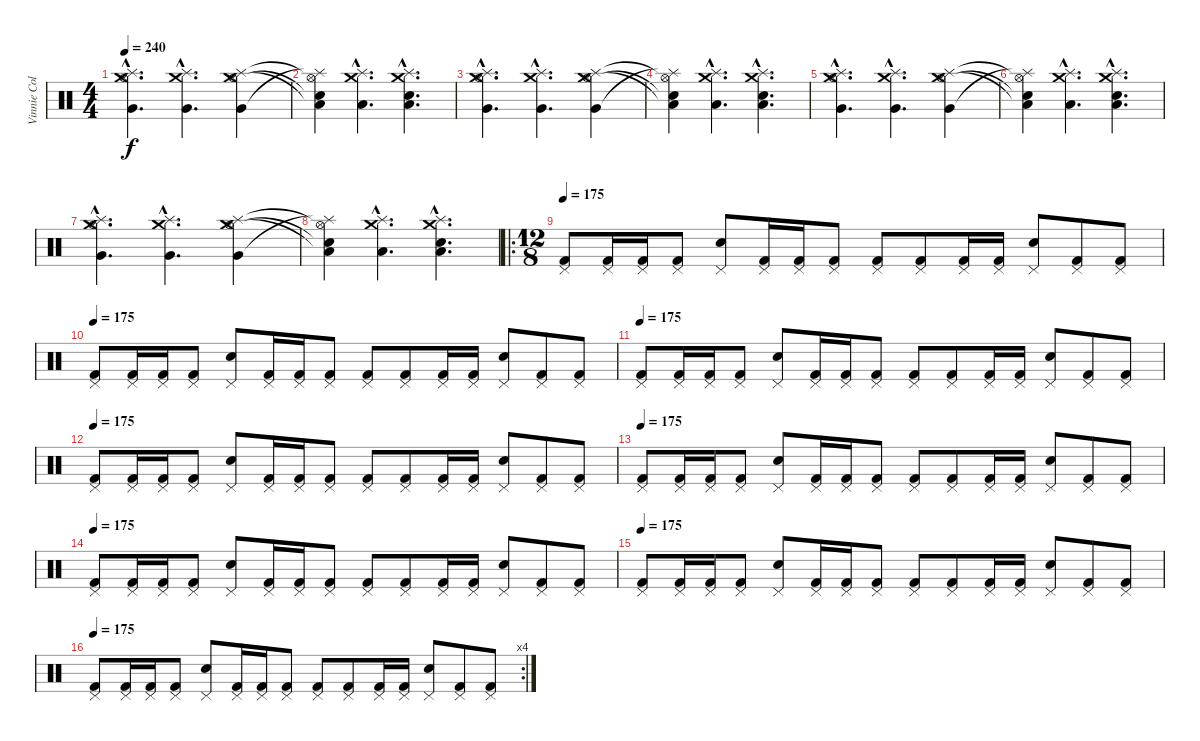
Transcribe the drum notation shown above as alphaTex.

\track ("Vinnie Colaiuta" "Vinnie Col") {instrument percussion}
\staff {score}
\articulation defaults
\ts (4 4)
\tempo 240
\clef neutral
\ks c
("Crash medium (hit)"{hac} "Hi-Hat (open)"{hac} "Very Low Tom (hit)"{hac} "Splash (hit)"{hac}).4{d dy f} ("Crash medium (hit)"{hac} "Very Low Tom (hit)"{hac} "Splash (hit)"{hac}).4{d} ("Crash medium (hit)" "Hi-Hat (open)" "Very Low Tom (hit)" "Splash (hit)").4 |
("Low Floor Tom (hit)"{t} "Snare (hit) 2"{t} "Splash (hit)"{t} "Hi-Hat (open)"{t}).4 ("Crash medium (hit)"{hac} "Low Floor Tom (hit)"{hac} "Splash (hit)"{hac}).4{d} ("Crash medium (hit)"{hac} "Low Floor Tom (hit)"{hac} "Snare (hit) 2"{hac} "Splash (hit)"{hac}).4{d} |
("Crash medium (hit)"{hac} "Hi-Hat (open)"{hac} "Very Low Tom (hit)"{hac} "Splash (hit)"{hac}).4{d} ("Crash medium (hit)"{hac} "Very Low Tom (hit)"{hac} "Splash (hit)"{hac}).4{d} ("Crash medium (hit)" "Hi-Hat (open)" "Very Low Tom (hit)" "Splash (hit)").4 |
("Low Floor Tom (hit)"{t} "Snare (hit) 2"{t} "Splash (hit)"{t} "Hi-Hat (open)"{t}).4 ("Crash medium (hit)"{hac} "Low Floor Tom (hit)"{hac} "Splash (hit)"{hac}).4{d} ("Crash medium (hit)"{hac} "Low Floor Tom (hit)"{hac} "Snare (hit) 2"{hac} "Splash (hit)"{hac}).4{d} |
("Crash medium (hit)"{hac} "Hi-Hat (open)"{hac} "Very Low Tom (hit)"{hac} "Splash (hit)"{hac}).4{d} ("Crash medium (hit)"{hac} "Very Low Tom (hit)"{hac} "Splash (hit)"{hac}).4{d} ("Crash medium (hit)" "Hi-Hat (open)" "Very Low Tom (hit)" "Splash (hit)").4 |
("Low Floor Tom (hit)"{t} "Snare (hit) 2"{t} "Splash (hit)"{t} "Hi-Hat (open)"{t}).4 ("Crash medium (hit)"{hac} "Low Floor Tom (hit)"{hac} "Splash (hit)"{hac}).4{d} ("Crash medium (hit)"{hac} "Low Floor Tom (hit)"{hac} "Snare (hit) 2"{hac} "Splash (hit)"{hac}).4{d} |
("Crash medium (hit)"{hac} "Hi-Hat (open)"{hac} "Very Low Tom (hit)"{hac} "Splash (hit)"{hac}).4{d} ("Crash medium (hit)"{hac} "Very Low Tom (hit)"{hac} "Splash (hit)"{hac}).4{d} ("Crash medium (hit)" "Hi-Hat (open)" "Very Low Tom (hit)" "Splash (hit)").4 |
("Low Floor Tom (hit)"{t} "Snare (hit) 2"{t} "Splash (hit)"{t} "Hi-Hat (open)"{t}).4 ("Crash medium (hit)"{hac} "Low Floor Tom (hit)"{hac} "Splash (hit)"{hac}).4{d} ("Crash medium (hit)"{hac} "Low Floor Tom (hit)"{hac} "Snare (hit) 2"{hac} "Splash (hit)"{hac}).4{d} |
\ro
\ts (12 8)
\tempo 175
("Kick (hit) 2" "Pedal Hi-Hat (hit)").8 ("Kick (hit) 2" "Pedal Hi-Hat (hit)").16 ("Kick (hit) 2" "Pedal Hi-Hat (hit)").16 ("Kick (hit) 2" "Pedal Hi-Hat (hit)").8 ("Snare (hit) 2" "Pedal Hi-Hat (hit)").8 ("Kick (hit) 2" "Pedal Hi-Hat (hit)").16 ("Kick (hit) 2" "Pedal Hi-Hat (hit)").16 ("Kick (hit) 2" "Pedal Hi-Hat (hit)").8 ("Kick (hit) 2" "Pedal Hi-Hat (hit)").8 ("Kick (hit) 2" "Pedal Hi-Hat (hit)").8 ("Kick (hit) 2" "Pedal Hi-Hat (hit)").16 ("Kick (hit) 2" "Pedal Hi-Hat (hit)").16 ("Snare (hit) 2" "Pedal Hi-Hat (hit)").8 ("Kick (hit) 2" "Pedal Hi-Hat (hit)").8 ("Kick (hit) 2" "Pedal Hi-Hat (hit)").8 |
\tempo 175
("Kick (hit) 2" "Pedal Hi-Hat (hit)").8 ("Kick (hit) 2" "Pedal Hi-Hat (hit)").16 ("Kick (hit) 2" "Pedal Hi-Hat (hit)").16 ("Kick (hit) 2" "Pedal Hi-Hat (hit)").8 ("Snare (hit) 2" "Pedal Hi-Hat (hit)").8 ("Kick (hit) 2" "Pedal Hi-Hat (hit)").16 ("Kick (hit) 2" "Pedal Hi-Hat (hit)").16 ("Kick (hit) 2" "Pedal Hi-Hat (hit)").8 ("Kick (hit) 2" "Pedal Hi-Hat (hit)").8 ("Kick (hit) 2" "Pedal Hi-Hat (hit)").8 ("Kick (hit) 2" "Pedal Hi-Hat (hit)").16 ("Kick (hit) 2" "Pedal Hi-Hat (hit)").16 ("Snare (hit) 2" "Pedal Hi-Hat (hit)").8 ("Kick (hit) 2" "Pedal Hi-Hat (hit)").8 ("Kick (hit) 2" "Pedal Hi-Hat (hit)").8 |
\tempo 175
("Kick (hit) 2" "Pedal Hi-Hat (hit)").8 ("Kick (hit) 2" "Pedal Hi-Hat (hit)").16 ("Kick (hit) 2" "Pedal Hi-Hat (hit)").16 ("Kick (hit) 2" "Pedal Hi-Hat (hit)").8 ("Snare (hit) 2" "Pedal Hi-Hat (hit)").8 ("Kick (hit) 2" "Pedal Hi-Hat (hit)").16 ("Kick (hit) 2" "Pedal Hi-Hat (hit)").16 ("Kick (hit) 2" "Pedal Hi-Hat (hit)").8 ("Kick (hit) 2" "Pedal Hi-Hat (hit)").8 ("Kick (hit) 2" "Pedal Hi-Hat (hit)").8 ("Kick (hit) 2" "Pedal Hi-Hat (hit)").16 ("Kick (hit) 2" "Pedal Hi-Hat (hit)").16 ("Snare (hit) 2" "Pedal Hi-Hat (hit)").8 ("Kick (hit) 2" "Pedal Hi-Hat (hit)").8 ("Kick (hit) 2" "Pedal Hi-Hat (hit)").8 |
\tempo 175
("Kick (hit) 2" "Pedal Hi-Hat (hit)").8 ("Kick (hit) 2" "Pedal Hi-Hat (hit)").16 ("Kick (hit) 2" "Pedal Hi-Hat (hit)").16 ("Kick (hit) 2" "Pedal Hi-Hat (hit)").8 ("Snare (hit) 2" "Pedal Hi-Hat (hit)").8 ("Kick (hit) 2" "Pedal Hi-Hat (hit)").16 ("Kick (hit) 2" "Pedal Hi-Hat (hit)").16 ("Kick (hit) 2" "Pedal Hi-Hat (hit)").8 ("Kick (hit) 2" "Pedal Hi-Hat (hit)").8 ("Kick (hit) 2" "Pedal Hi-Hat (hit)").8 ("Kick (hit) 2" "Pedal Hi-Hat (hit)").16 ("Kick (hit) 2" "Pedal Hi-Hat (hit)").16 ("Snare (hit) 2" "Pedal Hi-Hat (hit)").8 ("Kick (hit) 2" "Pedal Hi-Hat (hit)").8 ("Kick (hit) 2" "Pedal Hi-Hat (hit)").8 |
\tempo 175
("Kick (hit) 2" "Pedal Hi-Hat (hit)").8 ("Kick (hit) 2" "Pedal Hi-Hat (hit)").16 ("Kick (hit) 2" "Pedal Hi-Hat (hit)").16 ("Kick (hit) 2" "Pedal Hi-Hat (hit)").8 ("Snare (hit) 2" "Pedal Hi-Hat (hit)").8 ("Kick (hit) 2" "Pedal Hi-Hat (hit)").16 ("Kick (hit) 2" "Pedal Hi-Hat (hit)").16 ("Kick (hit) 2" "Pedal Hi-Hat (hit)").8 ("Kick (hit) 2" "Pedal Hi-Hat (hit)").8 ("Kick (hit) 2" "Pedal Hi-Hat (hit)").8 ("Kick (hit) 2" "Pedal Hi-Hat (hit)").16 ("Kick (hit) 2" "Pedal Hi-Hat (hit)").16 ("Snare (hit) 2" "Pedal Hi-Hat (hit)").8 ("Kick (hit) 2" "Pedal Hi-Hat (hit)").8 ("Kick (hit) 2" "Pedal Hi-Hat (hit)").8 |
\tempo 175
("Kick (hit) 2" "Pedal Hi-Hat (hit)").8 ("Kick (hit) 2" "Pedal Hi-Hat (hit)").16 ("Kick (hit) 2" "Pedal Hi-Hat (hit)").16 ("Kick (hit) 2" "Pedal Hi-Hat (hit)").8 ("Snare (hit) 2" "Pedal Hi-Hat (hit)").8 ("Kick (hit) 2" "Pedal Hi-Hat (hit)").16 ("Kick (hit) 2" "Pedal Hi-Hat (hit)").16 ("Kick (hit) 2" "Pedal Hi-Hat (hit)").8 ("Kick (hit) 2" "Pedal Hi-Hat (hit)").8 ("Kick (hit) 2" "Pedal Hi-Hat (hit)").8 ("Kick (hit) 2" "Pedal Hi-Hat (hit)").16 ("Kick (hit) 2" "Pedal Hi-Hat (hit)").16 ("Snare (hit) 2" "Pedal Hi-Hat (hit)").8 ("Kick (hit) 2" "Pedal Hi-Hat (hit)").8 ("Kick (hit) 2" "Pedal Hi-Hat (hit)").8 |
\tempo 175
("Kick (hit) 2" "Pedal Hi-Hat (hit)").8 ("Kick (hit) 2" "Pedal Hi-Hat (hit)").16 ("Kick (hit) 2" "Pedal Hi-Hat (hit)").16 ("Kick (hit) 2" "Pedal Hi-Hat (hit)").8 ("Snare (hit) 2" "Pedal Hi-Hat (hit)").8 ("Kick (hit) 2" "Pedal Hi-Hat (hit)").16 ("Kick (hit) 2" "Pedal Hi-Hat (hit)").16 ("Kick (hit) 2" "Pedal Hi-Hat (hit)").8 ("Kick (hit) 2" "Pedal Hi-Hat (hit)").8 ("Kick (hit) 2" "Pedal Hi-Hat (hit)").8 ("Kick (hit) 2" "Pedal Hi-Hat (hit)").16 ("Kick (hit) 2" "Pedal Hi-Hat (hit)").16 ("Snare (hit) 2" "Pedal Hi-Hat (hit)").8 ("Kick (hit) 2" "Pedal Hi-Hat (hit)").8 ("Kick (hit) 2" "Pedal Hi-Hat (hit)").8 |
\rc 4
\tempo 175
("Kick (hit) 2" "Pedal Hi-Hat (hit)").8 ("Kick (hit) 2" "Pedal Hi-Hat (hit)").16 ("Kick (hit) 2" "Pedal Hi-Hat (hit)").16 ("Kick (hit) 2" "Pedal Hi-Hat (hit)").8 ("Snare (hit) 2" "Pedal Hi-Hat (hit)").8 ("Kick (hit) 2" "Pedal Hi-Hat (hit)").16 ("Kick (hit) 2" "Pedal Hi-Hat (hit)").16 ("Kick (hit) 2" "Pedal Hi-Hat (hit)").8 ("Kick (hit) 2" "Pedal Hi-Hat (hit)").8 ("Kick (hit) 2" "Pedal Hi-Hat (hit)").8 ("Kick (hit) 2" "Pedal Hi-Hat (hit)").16 ("Kick (hit) 2" "Pedal Hi-Hat (hit)").16 ("Snare (hit) 2" "Pedal Hi-Hat (hit)").8 ("Kick (hit) 2" "Pedal Hi-Hat (hit)").8 ("Kick (hit) 2" "Pedal Hi-Hat (hit)").8
